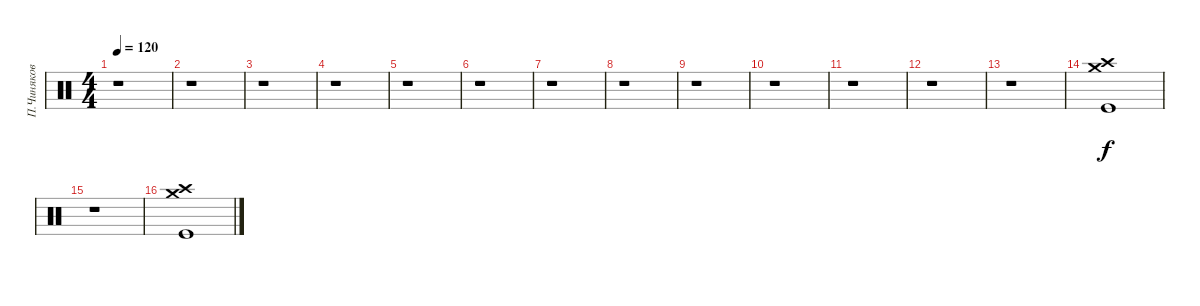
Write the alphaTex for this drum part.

\track ("П.Чиняков" "П.Чиняков") {instrument percussion}
\staff {score}
\articulation defaults
\ts (4 4)
\tempo 120
\clef neutral
\ks c
r.1{dy f} |
r.1 |
r.1 |
r.1 |
r.1 |
r.1 |
r.1 |
r.1 |
r.1 |
r.1 |
r.1 |
r.1 |
r.1 |
("Crash medium (hit)" "Crash high (hit)" "Kick (hit)").1 |
r.1 |
("Crash medium (hit)" "Crash high (hit)" "Kick (hit)").1
